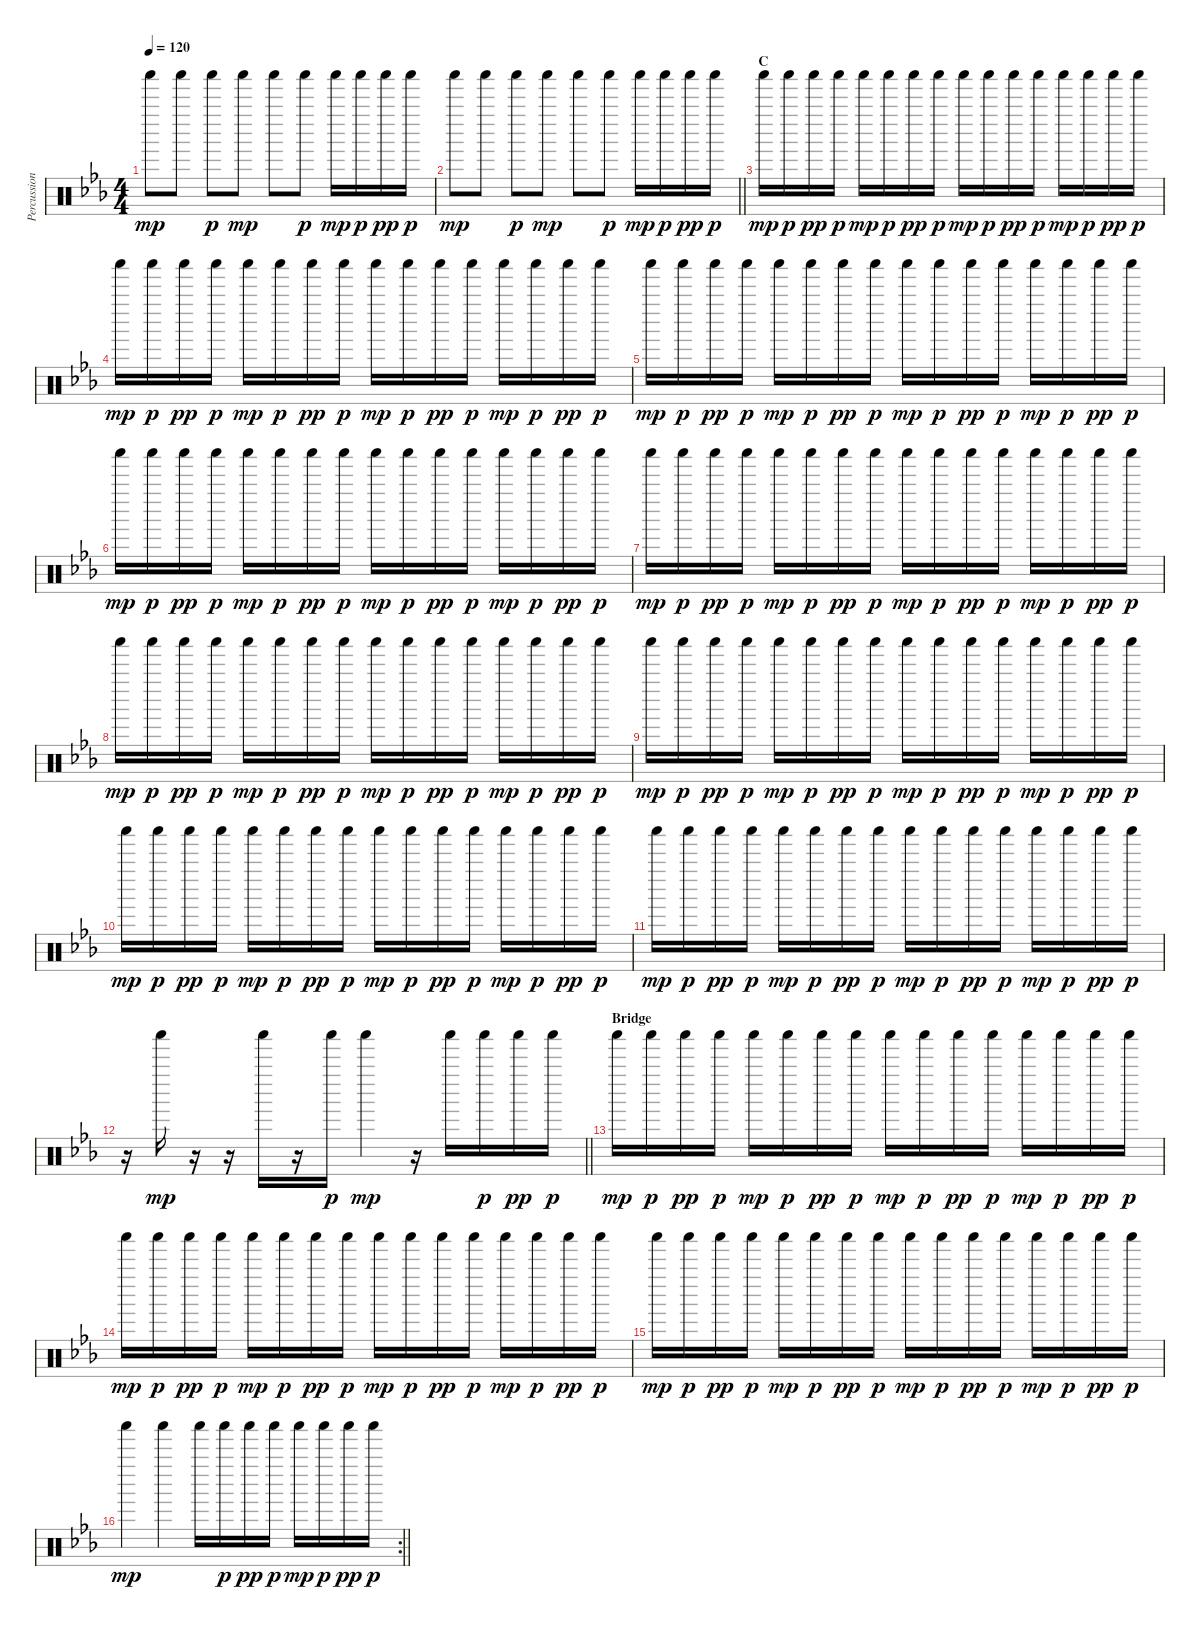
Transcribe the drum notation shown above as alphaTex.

\track ("Percussion" "Percussion") {instrument percussion}
\staff {score}
\articulation defaults
\ts (4 4)
\tempo 120
\clef neutral
\ks eb "Shaker (hit)".8{dy mp} "Shaker (hit)".8 "Shaker (hit)".8{dy p} "Shaker (hit)".8{dy mp} "Shaker (hit)".8 "Shaker (hit)".8{dy p} "Shaker (hit)".16{dy mp} "Shaker (hit)".16{dy p} "Shaker (hit)".16{dy pp} "Shaker (hit)".16{dy p}
|
\barLineRight lightlight "Shaker (hit)".8{dy mp} "Shaker (hit)".8 "Shaker (hit)".8{dy p} "Shaker (hit)".8{dy mp} "Shaker (hit)".8 "Shaker (hit)".8{dy p} "Shaker (hit)".16{dy mp} "Shaker (hit)".16{dy p} "Shaker (hit)".16{dy pp} "Shaker (hit)".16{dy p}
|
\section ("" "C")
"Shaker (hit)".16{dy mp} "Shaker (hit)".16{dy p} "Shaker (hit)".16{dy pp} "Shaker (hit)".16{dy p} "Shaker (hit)".16{dy mp} "Shaker (hit)".16{dy p} "Shaker (hit)".16{dy pp} "Shaker (hit)".16{dy p} "Shaker (hit)".16{dy mp} "Shaker (hit)".16{dy p} "Shaker (hit)".16{dy pp} "Shaker (hit)".16{dy p} "Shaker (hit)".16{dy mp} "Shaker (hit)".16{dy p} "Shaker (hit)".16{dy pp} "Shaker (hit)".16{dy p} |
"Shaker (hit)".16{dy mp} "Shaker (hit)".16{dy p} "Shaker (hit)".16{dy pp} "Shaker (hit)".16{dy p} "Shaker (hit)".16{dy mp} "Shaker (hit)".16{dy p} "Shaker (hit)".16{dy pp} "Shaker (hit)".16{dy p} "Shaker (hit)".16{dy mp} "Shaker (hit)".16{dy p} "Shaker (hit)".16{dy pp} "Shaker (hit)".16{dy p} "Shaker (hit)".16{dy mp} "Shaker (hit)".16{dy p} "Shaker (hit)".16{dy pp} "Shaker (hit)".16{dy p} |
"Shaker (hit)".16{dy mp} "Shaker (hit)".16{dy p} "Shaker (hit)".16{dy pp} "Shaker (hit)".16{dy p} "Shaker (hit)".16{dy mp} "Shaker (hit)".16{dy p} "Shaker (hit)".16{dy pp} "Shaker (hit)".16{dy p} "Shaker (hit)".16{dy mp} "Shaker (hit)".16{dy p} "Shaker (hit)".16{dy pp} "Shaker (hit)".16{dy p} "Shaker (hit)".16{dy mp} "Shaker (hit)".16{dy p} "Shaker (hit)".16{dy pp} "Shaker (hit)".16{dy p} |
"Shaker (hit)".16{dy mp} "Shaker (hit)".16{dy p} "Shaker (hit)".16{dy pp} "Shaker (hit)".16{dy p} "Shaker (hit)".16{dy mp} "Shaker (hit)".16{dy p} "Shaker (hit)".16{dy pp} "Shaker (hit)".16{dy p} "Shaker (hit)".16{dy mp} "Shaker (hit)".16{dy p} "Shaker (hit)".16{dy pp} "Shaker (hit)".16{dy p} "Shaker (hit)".16{dy mp} "Shaker (hit)".16{dy p} "Shaker (hit)".16{dy pp} "Shaker (hit)".16{dy p} |
"Shaker (hit)".16{dy mp} "Shaker (hit)".16{dy p} "Shaker (hit)".16{dy pp} "Shaker (hit)".16{dy p} "Shaker (hit)".16{dy mp} "Shaker (hit)".16{dy p} "Shaker (hit)".16{dy pp} "Shaker (hit)".16{dy p} "Shaker (hit)".16{dy mp} "Shaker (hit)".16{dy p} "Shaker (hit)".16{dy pp} "Shaker (hit)".16{dy p} "Shaker (hit)".16{dy mp} "Shaker (hit)".16{dy p} "Shaker (hit)".16{dy pp} "Shaker (hit)".16{dy p} |
"Shaker (hit)".16{dy mp} "Shaker (hit)".16{dy p} "Shaker (hit)".16{dy pp} "Shaker (hit)".16{dy p} "Shaker (hit)".16{dy mp} "Shaker (hit)".16{dy p} "Shaker (hit)".16{dy pp} "Shaker (hit)".16{dy p} "Shaker (hit)".16{dy mp} "Shaker (hit)".16{dy p} "Shaker (hit)".16{dy pp} "Shaker (hit)".16{dy p} "Shaker (hit)".16{dy mp} "Shaker (hit)".16{dy p} "Shaker (hit)".16{dy pp} "Shaker (hit)".16{dy p} |
"Shaker (hit)".16{dy mp} "Shaker (hit)".16{dy p} "Shaker (hit)".16{dy pp} "Shaker (hit)".16{dy p} "Shaker (hit)".16{dy mp} "Shaker (hit)".16{dy p} "Shaker (hit)".16{dy pp} "Shaker (hit)".16{dy p} "Shaker (hit)".16{dy mp} "Shaker (hit)".16{dy p} "Shaker (hit)".16{dy pp} "Shaker (hit)".16{dy p} "Shaker (hit)".16{dy mp} "Shaker (hit)".16{dy p} "Shaker (hit)".16{dy pp} "Shaker (hit)".16{dy p} |
"Shaker (hit)".16{dy mp} "Shaker (hit)".16{dy p} "Shaker (hit)".16{dy pp} "Shaker (hit)".16{dy p} "Shaker (hit)".16{dy mp} "Shaker (hit)".16{dy p} "Shaker (hit)".16{dy pp} "Shaker (hit)".16{dy p} "Shaker (hit)".16{dy mp} "Shaker (hit)".16{dy p} "Shaker (hit)".16{dy pp} "Shaker (hit)".16{dy p} "Shaker (hit)".16{dy mp} "Shaker (hit)".16{dy p} "Shaker (hit)".16{dy pp} "Shaker (hit)".16{dy p} |
"Shaker (hit)".16{dy mp} "Shaker (hit)".16{dy p} "Shaker (hit)".16{dy pp} "Shaker (hit)".16{dy p} "Shaker (hit)".16{dy mp} "Shaker (hit)".16{dy p} "Shaker (hit)".16{dy pp} "Shaker (hit)".16{dy p} "Shaker (hit)".16{dy mp} "Shaker (hit)".16{dy p} "Shaker (hit)".16{dy pp} "Shaker (hit)".16{dy p} "Shaker (hit)".16{dy mp} "Shaker (hit)".16{dy p} "Shaker (hit)".16{dy pp} "Shaker (hit)".16{dy p} |
\barLineRight lightlight
r.16 "Shaker (hit)".16{dy mp} r.16 r.16 "Shaker (hit)".16 r.16 "Shaker (hit)".16{dy p} "Shaker (hit)".4{dy mp} r.16 "Shaker (hit)".16 "Shaker (hit)".16{dy p} "Shaker (hit)".16{dy pp} "Shaker (hit)".16{dy p} |
\section ("" "Bridge")
"Shaker (hit)".16{dy mp} "Shaker (hit)".16{dy p} "Shaker (hit)".16{dy pp} "Shaker (hit)".16{dy p} "Shaker (hit)".16{dy mp} "Shaker (hit)".16{dy p} "Shaker (hit)".16{dy pp} "Shaker (hit)".16{dy p} "Shaker (hit)".16{dy mp} "Shaker (hit)".16{dy p} "Shaker (hit)".16{dy pp} "Shaker (hit)".16{dy p} "Shaker (hit)".16{dy mp} "Shaker (hit)".16{dy p} "Shaker (hit)".16{dy pp} "Shaker (hit)".16{dy p} |
"Shaker (hit)".16{dy mp} "Shaker (hit)".16{dy p} "Shaker (hit)".16{dy pp} "Shaker (hit)".16{dy p} "Shaker (hit)".16{dy mp} "Shaker (hit)".16{dy p} "Shaker (hit)".16{dy pp} "Shaker (hit)".16{dy p} "Shaker (hit)".16{dy mp} "Shaker (hit)".16{dy p} "Shaker (hit)".16{dy pp} "Shaker (hit)".16{dy p} "Shaker (hit)".16{dy mp} "Shaker (hit)".16{dy p} "Shaker (hit)".16{dy pp} "Shaker (hit)".16{dy p} |
"Shaker (hit)".16{dy mp} "Shaker (hit)".16{dy p} "Shaker (hit)".16{dy pp} "Shaker (hit)".16{dy p} "Shaker (hit)".16{dy mp} "Shaker (hit)".16{dy p} "Shaker (hit)".16{dy pp} "Shaker (hit)".16{dy p} "Shaker (hit)".16{dy mp} "Shaker (hit)".16{dy p} "Shaker (hit)".16{dy pp} "Shaker (hit)".16{dy p} "Shaker (hit)".16{dy mp} "Shaker (hit)".16{dy p} "Shaker (hit)".16{dy pp} "Shaker (hit)".16{dy p} |
\rc 2
\barLineRight lightlight "Shaker (hit)".4{dy mp} "Shaker (hit)".4 "Shaker (hit)".16 "Shaker (hit)".16{dy p} "Shaker (hit)".16{dy pp} "Shaker (hit)".16{dy p} "Shaker (hit)".16{dy mp} "Shaker (hit)".16{dy p} "Shaker (hit)".16{dy pp} "Shaker (hit)".16{dy p}
